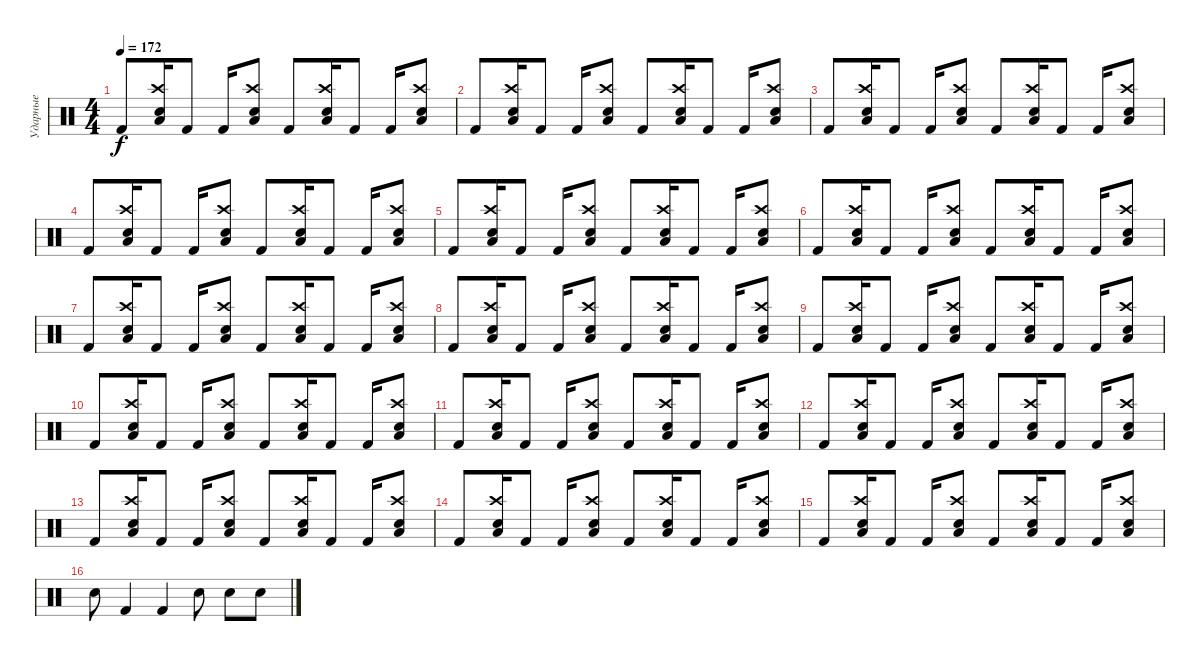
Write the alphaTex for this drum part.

\track ("Ударные" "Ударные") {instrument percussion}
\staff {score}
\articulation defaults
\ts (4 4)
\tempo 172
\clef neutral
\ks c "Kick (hit) 2".8{dy f}
("Low Floor Tom (hit)" "Crash high (hit)" "Electric Snare (hit)").16 "Kick (hit) 2".8 "Kick (hit) 2".16 ("Low Floor Tom (hit)" "Crash high (hit)" "Electric Snare (hit)").8 "Kick (hit) 2".8 ("Low Floor Tom (hit)" "Crash high (hit)" "Electric Snare (hit)").16 "Kick (hit) 2".8 "Kick (hit) 2".16 ("Low Floor Tom (hit)" "Crash high (hit)" "Electric Snare (hit)").8 |
"Kick (hit) 2".8 ("Low Floor Tom (hit)" "Crash high (hit)" "Electric Snare (hit)").16 "Kick (hit) 2".8 "Kick (hit) 2".16 ("Low Floor Tom (hit)" "Crash high (hit)" "Electric Snare (hit)").8 "Kick (hit) 2".8 ("Low Floor Tom (hit)" "Crash high (hit)" "Electric Snare (hit)").16 "Kick (hit) 2".8 "Kick (hit) 2".16 ("Low Floor Tom (hit)" "Crash high (hit)" "Electric Snare (hit)").8 |
"Kick (hit) 2".8 ("Low Floor Tom (hit)" "Crash high (hit)" "Electric Snare (hit)").16 "Kick (hit) 2".8 "Kick (hit) 2".16 ("Low Floor Tom (hit)" "Crash high (hit)" "Electric Snare (hit)").8 "Kick (hit) 2".8 ("Low Floor Tom (hit)" "Crash high (hit)" "Electric Snare (hit)").16 "Kick (hit) 2".8 "Kick (hit) 2".16 ("Low Floor Tom (hit)" "Crash high (hit)" "Electric Snare (hit)").8 |
"Kick (hit) 2".8 ("Low Floor Tom (hit)" "Crash high (hit)" "Electric Snare (hit)").16 "Kick (hit) 2".8 "Kick (hit) 2".16 ("Low Floor Tom (hit)" "Crash high (hit)" "Electric Snare (hit)").8 "Kick (hit) 2".8 ("Low Floor Tom (hit)" "Crash high (hit)" "Electric Snare (hit)").16 "Kick (hit) 2".8 "Kick (hit) 2".16 ("Low Floor Tom (hit)" "Crash high (hit)" "Electric Snare (hit)").8 |
"Kick (hit) 2".8 ("Low Floor Tom (hit)" "Crash high (hit)" "Electric Snare (hit)").16 "Kick (hit) 2".8 "Kick (hit) 2".16 ("Low Floor Tom (hit)" "Crash high (hit)" "Electric Snare (hit)").8 "Kick (hit) 2".8 ("Low Floor Tom (hit)" "Crash high (hit)" "Electric Snare (hit)").16 "Kick (hit) 2".8 "Kick (hit) 2".16 ("Low Floor Tom (hit)" "Crash high (hit)" "Electric Snare (hit)").8 |
"Kick (hit) 2".8 ("Low Floor Tom (hit)" "Crash high (hit)" "Electric Snare (hit)").16 "Kick (hit) 2".8 "Kick (hit) 2".16 ("Low Floor Tom (hit)" "Crash high (hit)" "Electric Snare (hit)").8 "Kick (hit) 2".8 ("Low Floor Tom (hit)" "Crash high (hit)" "Electric Snare (hit)").16 "Kick (hit) 2".8 "Kick (hit) 2".16 ("Low Floor Tom (hit)" "Crash high (hit)" "Electric Snare (hit)").8 |
"Kick (hit) 2".8 ("Low Floor Tom (hit)" "Crash high (hit)" "Electric Snare (hit)").16 "Kick (hit) 2".8 "Kick (hit) 2".16 ("Low Floor Tom (hit)" "Crash high (hit)" "Electric Snare (hit)").8 "Kick (hit) 2".8 ("Low Floor Tom (hit)" "Crash high (hit)" "Electric Snare (hit)").16 "Kick (hit) 2".8 "Kick (hit) 2".16 ("Low Floor Tom (hit)" "Crash high (hit)" "Electric Snare (hit)").8 |
"Kick (hit) 2".8 ("Low Floor Tom (hit)" "Crash high (hit)" "Electric Snare (hit)").16 "Kick (hit) 2".8 "Kick (hit) 2".16 ("Low Floor Tom (hit)" "Crash high (hit)" "Electric Snare (hit)").8 "Kick (hit) 2".8 ("Low Floor Tom (hit)" "Crash high (hit)" "Electric Snare (hit)").16 "Kick (hit) 2".8 "Kick (hit) 2".16 ("Low Floor Tom (hit)" "Crash high (hit)" "Electric Snare (hit)").8 |
"Kick (hit) 2".8 ("Low Floor Tom (hit)" "Crash high (hit)" "Electric Snare (hit)").16 "Kick (hit) 2".8 "Kick (hit) 2".16 ("Low Floor Tom (hit)" "Crash high (hit)" "Electric Snare (hit)").8 "Kick (hit) 2".8 ("Low Floor Tom (hit)" "Crash high (hit)" "Electric Snare (hit)").16 "Kick (hit) 2".8 "Kick (hit) 2".16 ("Low Floor Tom (hit)" "Crash high (hit)" "Electric Snare (hit)").8 |
"Kick (hit) 2".8 ("Low Floor Tom (hit)" "Crash high (hit)" "Electric Snare (hit)").16 "Kick (hit) 2".8 "Kick (hit) 2".16 ("Low Floor Tom (hit)" "Crash high (hit)" "Electric Snare (hit)").8 "Kick (hit) 2".8 ("Low Floor Tom (hit)" "Crash high (hit)" "Electric Snare (hit)").16 "Kick (hit) 2".8 "Kick (hit) 2".16 ("Low Floor Tom (hit)" "Crash high (hit)" "Electric Snare (hit)").8 |
"Kick (hit) 2".8 ("Low Floor Tom (hit)" "Crash high (hit)" "Electric Snare (hit)").16 "Kick (hit) 2".8 "Kick (hit) 2".16 ("Low Floor Tom (hit)" "Crash high (hit)" "Electric Snare (hit)").8 "Kick (hit) 2".8 ("Low Floor Tom (hit)" "Crash high (hit)" "Electric Snare (hit)").16 "Kick (hit) 2".8 "Kick (hit) 2".16 ("Low Floor Tom (hit)" "Crash high (hit)" "Electric Snare (hit)").8 |
"Kick (hit) 2".8 ("Low Floor Tom (hit)" "Crash high (hit)" "Electric Snare (hit)").16 "Kick (hit) 2".8 "Kick (hit) 2".16 ("Low Floor Tom (hit)" "Crash high (hit)" "Electric Snare (hit)").8 "Kick (hit) 2".8 ("Low Floor Tom (hit)" "Crash high (hit)" "Electric Snare (hit)").16 "Kick (hit) 2".8 "Kick (hit) 2".16 ("Low Floor Tom (hit)" "Crash high (hit)" "Electric Snare (hit)").8 |
"Kick (hit) 2".8 ("Low Floor Tom (hit)" "Crash high (hit)" "Electric Snare (hit)").16 "Kick (hit) 2".8 "Kick (hit) 2".16 ("Low Floor Tom (hit)" "Crash high (hit)" "Electric Snare (hit)").8 "Kick (hit) 2".8 ("Low Floor Tom (hit)" "Crash high (hit)" "Electric Snare (hit)").16 "Kick (hit) 2".8 "Kick (hit) 2".16 ("Low Floor Tom (hit)" "Crash high (hit)" "Electric Snare (hit)").8 |
"Kick (hit) 2".8 ("Low Floor Tom (hit)" "Crash high (hit)" "Electric Snare (hit)").16 "Kick (hit) 2".8 "Kick (hit) 2".16 ("Low Floor Tom (hit)" "Crash high (hit)" "Electric Snare (hit)").8 "Kick (hit) 2".8 ("Low Floor Tom (hit)" "Crash high (hit)" "Electric Snare (hit)").16 "Kick (hit) 2".8 "Kick (hit) 2".16 ("Low Floor Tom (hit)" "Crash high (hit)" "Electric Snare (hit)").8 |
"Kick (hit) 2".8 ("Low Floor Tom (hit)" "Crash high (hit)" "Electric Snare (hit)").16 "Kick (hit) 2".8 "Kick (hit) 2".16 ("Low Floor Tom (hit)" "Crash high (hit)" "Electric Snare (hit)").8 "Kick (hit) 2".8 ("Low Floor Tom (hit)" "Crash high (hit)" "Electric Snare (hit)").16 "Kick (hit) 2".8 "Kick (hit) 2".16 ("Low Floor Tom (hit)" "Crash high (hit)" "Electric Snare (hit)").8 |
"Electric Snare (hit)".8 "Kick (hit) 2".4 "Kick (hit) 2".4 "Electric Snare (hit)".8 "Electric Snare (hit)".8 "Electric Snare (hit)".8
